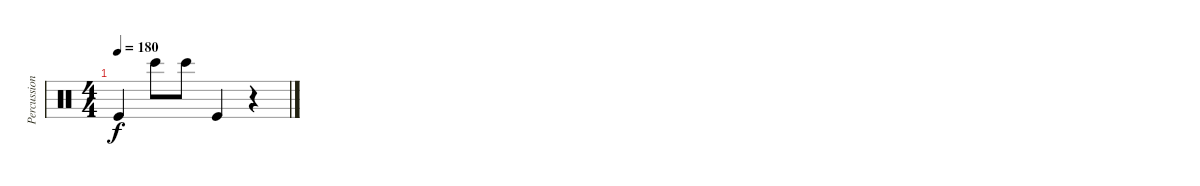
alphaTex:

\track ("Percussion" "Percussion") {instrument percussion}
\staff {score}
\articulation defaults
\ts (4 4)
\tempo 180
\clef neutral
\ks c "Kick (hit)".4{dy f} "Bongo High (hit)".8 "Bongo High (hit)".8 "Kick (hit)".4
r.4
